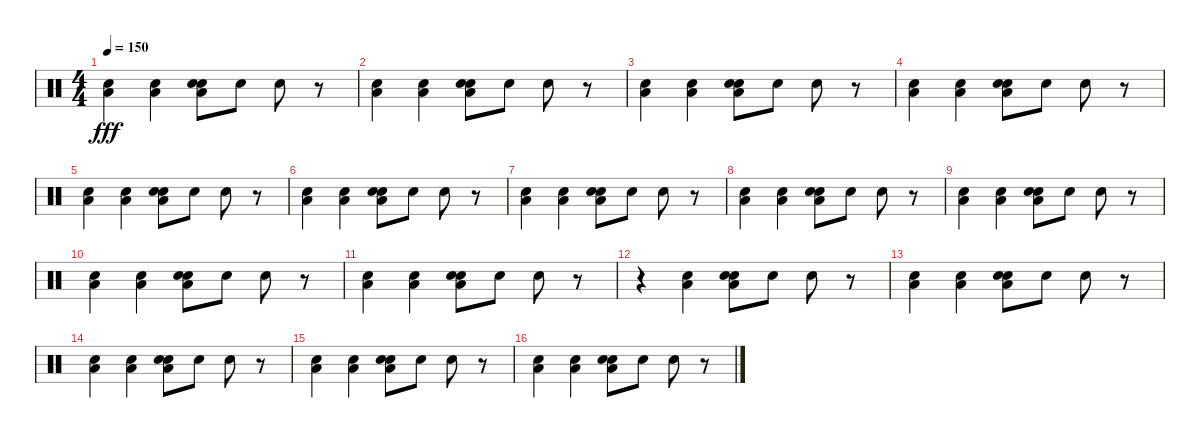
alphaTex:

\track "" {instrument percussion}
\staff {score}
\articulation defaults
\ts (4 4)
\tempo 150
\clef neutral
\ks c
("Low Floor Tom (hit)" "Electric Snare (hit)").4{dy fff} ("Low Floor Tom (hit)" "Electric Snare (hit)").4 ("Electric Snare (hit)" "Low Floor Tom (hit)" "Electric Snare (hit)").8 "Electric Snare (hit)".8 "Electric Snare (hit)".8 r.8 |
("Low Floor Tom (hit)" "Electric Snare (hit)").4 ("Low Floor Tom (hit)" "Electric Snare (hit)").4 ("Electric Snare (hit)" "Low Floor Tom (hit)" "Electric Snare (hit)").8 "Electric Snare (hit)".8 "Electric Snare (hit)".8 r.8 |
("Low Floor Tom (hit)" "Electric Snare (hit)").4 ("Low Floor Tom (hit)" "Electric Snare (hit)").4 ("Electric Snare (hit)" "Low Floor Tom (hit)" "Electric Snare (hit)").8 "Electric Snare (hit)".8 "Electric Snare (hit)".8 r.8 |
("Low Floor Tom (hit)" "Electric Snare (hit)").4 ("Low Floor Tom (hit)" "Electric Snare (hit)").4 ("Electric Snare (hit)" "Low Floor Tom (hit)" "Electric Snare (hit)").8 "Electric Snare (hit)".8 "Electric Snare (hit)".8 r.8 |
("Low Floor Tom (hit)" "Electric Snare (hit)").4 ("Low Floor Tom (hit)" "Electric Snare (hit)").4 ("Electric Snare (hit)" "Low Floor Tom (hit)" "Electric Snare (hit)").8 "Electric Snare (hit)".8 "Electric Snare (hit)".8 r.8 |
("Low Floor Tom (hit)" "Electric Snare (hit)").4 ("Low Floor Tom (hit)" "Electric Snare (hit)").4 ("Electric Snare (hit)" "Low Floor Tom (hit)" "Electric Snare (hit)").8 "Electric Snare (hit)".8 "Electric Snare (hit)".8 r.8 |
("Low Floor Tom (hit)" "Electric Snare (hit)").4 ("Low Floor Tom (hit)" "Electric Snare (hit)").4 ("Electric Snare (hit)" "Low Floor Tom (hit)" "Electric Snare (hit)").8 "Electric Snare (hit)".8 "Electric Snare (hit)".8 r.8 |
("Low Floor Tom (hit)" "Electric Snare (hit)").4 ("Low Floor Tom (hit)" "Electric Snare (hit)").4 ("Electric Snare (hit)" "Low Floor Tom (hit)" "Electric Snare (hit)").8 "Electric Snare (hit)".8 "Electric Snare (hit)".8 r.8 |
("Low Floor Tom (hit)" "Electric Snare (hit)").4 ("Low Floor Tom (hit)" "Electric Snare (hit)").4 ("Electric Snare (hit)" "Low Floor Tom (hit)" "Electric Snare (hit)").8 "Electric Snare (hit)".8 "Electric Snare (hit)".8 r.8 |
("Low Floor Tom (hit)" "Electric Snare (hit)").4 ("Low Floor Tom (hit)" "Electric Snare (hit)").4 ("Electric Snare (hit)" "Low Floor Tom (hit)" "Electric Snare (hit)").8 "Electric Snare (hit)".8 "Electric Snare (hit)".8 r.8 |
("Low Floor Tom (hit)" "Electric Snare (hit)").4 ("Low Floor Tom (hit)" "Electric Snare (hit)").4 ("Electric Snare (hit)" "Low Floor Tom (hit)" "Electric Snare (hit)").8 "Electric Snare (hit)".8 "Electric Snare (hit)".8 r.8 |
r.4 ("Low Floor Tom (hit)" "Snare (hit) 2").4 ("Electric Snare (hit)" "Low Floor Tom (hit)" "Snare (hit) 2").8 "Electric Snare (hit)".8 "Electric Snare (hit)".8 r.8 |
("Low Floor Tom (hit)" "Electric Snare (hit)").4 ("Low Floor Tom (hit)" "Electric Snare (hit)").4 ("Electric Snare (hit)" "Low Floor Tom (hit)" "Electric Snare (hit)").8 "Electric Snare (hit)".8 "Electric Snare (hit)".8 r.8 |
("Low Floor Tom (hit)" "Electric Snare (hit)").4 ("Low Floor Tom (hit)" "Electric Snare (hit)").4 ("Electric Snare (hit)" "Low Floor Tom (hit)" "Electric Snare (hit)").8 "Electric Snare (hit)".8 "Electric Snare (hit)".8 r.8 |
("Low Floor Tom (hit)" "Electric Snare (hit)").4 ("Low Floor Tom (hit)" "Electric Snare (hit)").4 ("Electric Snare (hit)" "Low Floor Tom (hit)" "Electric Snare (hit)").8 "Electric Snare (hit)".8 "Electric Snare (hit)".8 r.8 |
("Low Floor Tom (hit)" "Electric Snare (hit)").4 ("Low Floor Tom (hit)" "Electric Snare (hit)").4 ("Electric Snare (hit)" "Low Floor Tom (hit)" "Electric Snare (hit)").8 "Electric Snare (hit)".8 "Electric Snare (hit)".8 r.8
